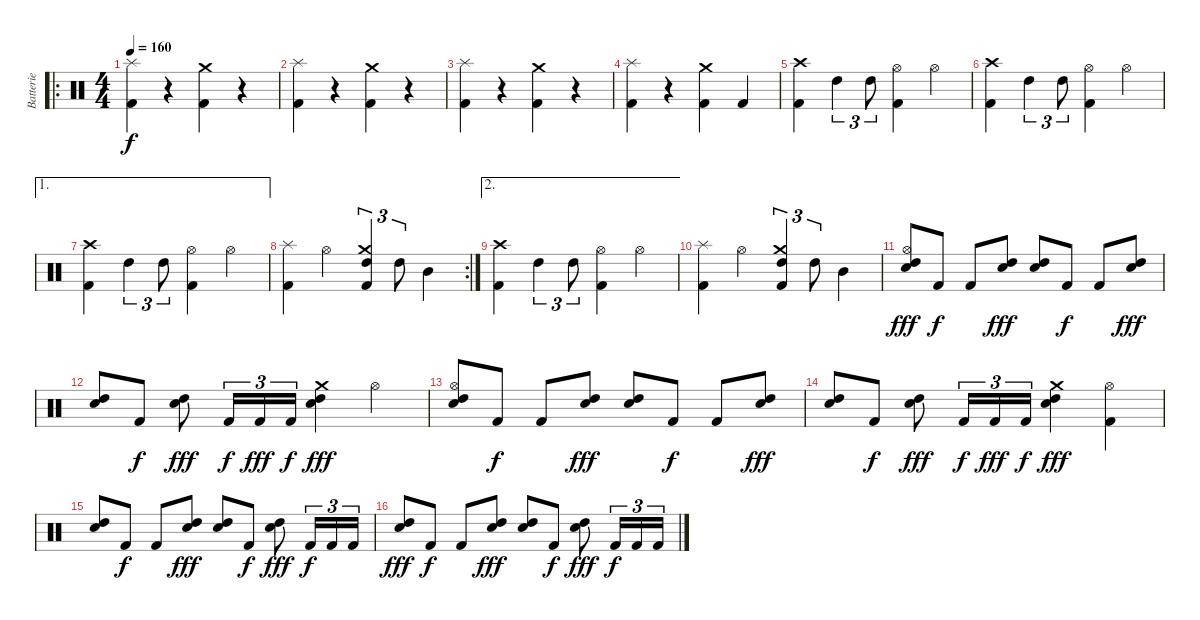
\track ("Batterie" "Batterie") {instrument percussion}
\staff {score}
\articulation defaults
\ro
\ts (4 4)
\tempo 160
\clef neutral
\ks c
("Splash (hit)" "Kick (hit) 2").4{dy f} r.4 ("Crash medium (hit)" "Kick (hit) 2").4 r.4 |
("Splash (hit)" "Kick (hit) 2").4 r.4 ("Crash medium (hit)" "Kick (hit) 2").4 r.4 |
("Splash (hit)" "Kick (hit) 2").4 r.4 ("Crash medium (hit)" "Kick (hit) 2").4 r.4 |
("Splash (hit)" "Kick (hit) 2").4 r.4 ("Crash medium (hit)" "Kick (hit) 2").4 "Kick (hit) 2".4 |
("Crash high (hit)" "Kick (hit) 2").4 "High Tom (hit)".4{tu (3 2)} "High Tom (hit)".8{tu (3 2)} ("Hi-Hat (open)" "Kick (hit) 2").4 "Hi-Hat (open)".4 |
("Crash high (hit)" "Kick (hit) 2").4 "High Tom (hit)".4{tu (3 2)} "High Tom (hit)".8{tu (3 2)} ("Hi-Hat (open)" "Kick (hit) 2").4 "Hi-Hat (open)".4 |
\ae 1
("Crash high (hit)" "Kick (hit) 2").4 "High Tom (hit)".4{tu (3 2)} "High Tom (hit)".8{tu (3 2)} ("Hi-Hat (open)" "Kick (hit) 2").4 "Hi-Hat (open)".4 |
\rc 2
("Splash (hit)" "Kick (hit) 2").4 "Hi-Hat (open)".4 ("Crash medium (hit)" "High Tom (hit)" "Kick (hit) 2").4{tu (3 2)} "High Tom (hit)".8{tu (3 2)} "Mid Tom (hit)".4 |
\ae 2
("Crash high (hit)" "Kick (hit) 2").4 "High Tom (hit)".4{tu (3 2)} "High Tom (hit)".8{tu (3 2)} ("Hi-Hat (open)" "Kick (hit) 2").4 "Hi-Hat (open)".4 |
("Splash (hit)" "Kick (hit) 2").4 "Hi-Hat (open)".4 ("Crash medium (hit)" "High Tom (hit)" "Kick (hit) 2").4{tu (3 2)} "High Tom (hit)".8{tu (3 2)} "Mid Tom (hit)".4 |
("Hi-Hat (open)" "High Tom (hit)" "Electric Snare (hit)").8{dy fff} "Kick (hit) 2".8{dy f} "Kick (hit) 2".8 ("High Tom (hit)" "Electric Snare (hit)").8{dy fff} ("High Tom (hit)" "Electric Snare (hit)").8 "Kick (hit) 2".8{dy f} "Kick (hit) 2".8 ("High Tom (hit)" "Electric Snare (hit)").8{dy fff} |
("High Tom (hit)" "Electric Snare (hit)").8 "Kick (hit) 2".8{dy f} ("High Tom (hit)" "Electric Snare (hit)").8{dy fff} "Kick (hit) 2".16{tu (3 2) dy f} "Kick (hit) 2".16{tu (3 2) dy fff} "Kick (hit) 2".16{tu (3 2) dy f} ("Crash medium (hit)" "High Tom (hit)" "Electric Snare (hit)").4{dy fff} "Hi-Hat (open)".4 |
("Hi-Hat (open)" "High Tom (hit)" "Electric Snare (hit)").8 "Kick (hit) 2".8{dy f} "Kick (hit) 2".8 ("High Tom (hit)" "Electric Snare (hit)").8{dy fff} ("High Tom (hit)" "Electric Snare (hit)").8 "Kick (hit) 2".8{dy f} "Kick (hit) 2".8 ("High Tom (hit)" "Electric Snare (hit)").8{dy fff} |
("High Tom (hit)" "Electric Snare (hit)").8 "Kick (hit) 2".8{dy f} ("High Tom (hit)" "Electric Snare (hit)").8{dy fff} "Kick (hit) 2".16{tu (3 2) dy f} "Kick (hit) 2".16{tu (3 2) dy fff} "Kick (hit) 2".16{tu (3 2) dy f} ("Crash medium (hit)" "High Tom (hit)" "Electric Snare (hit)").4{dy fff} ("Hi-Hat (open)" "Kick (hit) 2").4 |
("High Tom (hit)" "Electric Snare (hit)").8 "Kick (hit) 2".8{dy f} "Kick (hit) 2".8 ("High Tom (hit)" "Electric Snare (hit)").8{dy fff} ("High Tom (hit)" "Electric Snare (hit)").8 "Kick (hit) 2".8{dy f} ("High Tom (hit)" "Electric Snare (hit)").8{dy fff} "Kick (hit) 2".16{tu (3 2) dy f} "Kick (hit) 2".16{tu (3 2)} "Kick (hit) 2".16{tu (3 2)} |
("High Tom (hit)" "Electric Snare (hit)").8{dy fff} "Kick (hit) 2".8{dy f} "Kick (hit) 2".8 ("High Tom (hit)" "Electric Snare (hit)").8{dy fff} ("High Tom (hit)" "Electric Snare (hit)").8 "Kick (hit) 2".8{dy f} ("High Tom (hit)" "Electric Snare (hit)").8{dy fff} "Kick (hit) 2".16{tu (3 2) dy f} "Kick (hit) 2".16{tu (3 2)} "Kick (hit) 2".16{tu (3 2)}
